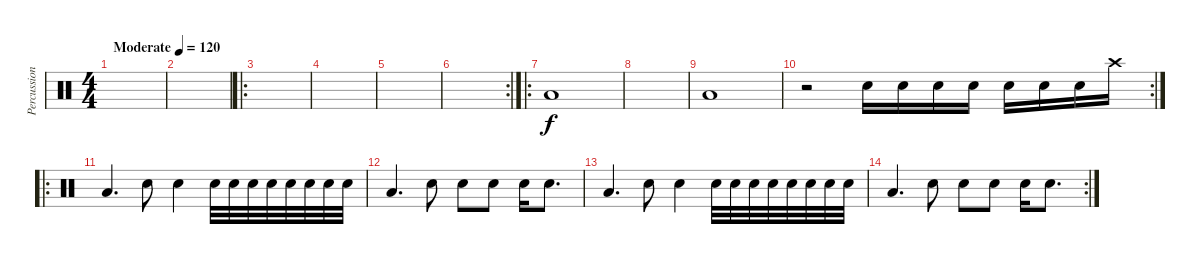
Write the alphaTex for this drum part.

\track ("Percussion" "Percussion") {instrument percussion}
\staff {score}
\articulation defaults
\ts (4 4)
\tempo (120 "Moderate")
\clef neutral
\ks c
|
|
\ro
|
|
|
\rc 2
|
\ro "Low Floor Tom (hit)".1
|
|
"Low Floor Tom (hit)".1 |
\rc 2
r.2 "Snare (hit) 2".16 "Snare (hit) 2".16 "Snare (hit) 2".16 "Snare (hit) 2".16 "Snare (hit) 2".16 "Snare (hit) 2".16 "Snare (hit) 2".16 "Crash high (hit)".16 |
\ro "Low Floor Tom (hit)".4{d} "Snare (hit) 2".8 "Snare (hit) 2".4 "Snare (hit) 2".32 "Snare (hit) 2".32 "Snare (hit) 2".32 "Snare (hit) 2".32 "Snare (hit) 2".32 "Snare (hit) 2".32 "Snare (hit) 2".32 "Snare (hit) 2".32
|
"Low Floor Tom (hit)".4{d} "Snare (hit) 2".8 "Snare (hit) 2".8 "Snare (hit) 2".8 "Snare (hit) 2".16 "Snare (hit) 2".8{d} |
"Low Floor Tom (hit)".4{d} "Snare (hit) 2".8 "Snare (hit) 2".4 "Snare (hit) 2".32 "Snare (hit) 2".32 "Snare (hit) 2".32 "Snare (hit) 2".32 "Snare (hit) 2".32 "Snare (hit) 2".32 "Snare (hit) 2".32 "Snare (hit) 2".32 |
\rc 2 "Low Floor Tom (hit)".4{d} "Snare (hit) 2".8 "Snare (hit) 2".8 "Snare (hit) 2".8 "Snare (hit) 2".16 "Snare (hit) 2".8{d}
